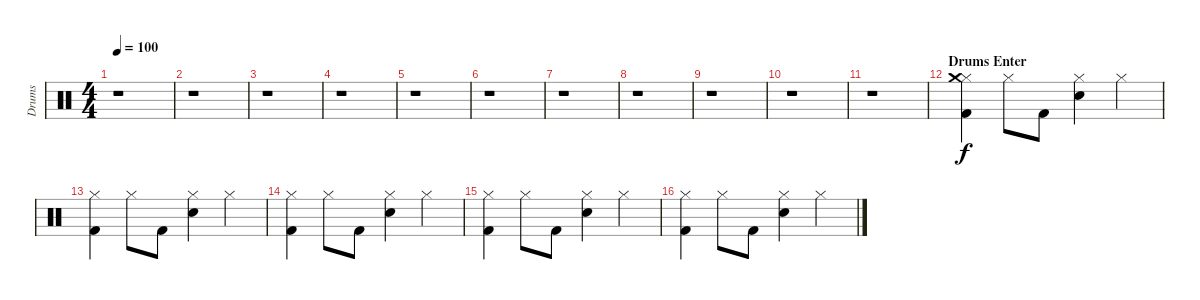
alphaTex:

\track ("Drums" "Drums") {instrument percussion}
\staff {score}
\articulation defaults
\ts (4 4)
\tempo 100
\clef neutral
\ks c
r.1{dy f} |
r.1 |
r.1 |
r.1 |
r.1 |
r.1 |
r.1 |
r.1 |
r.1 |
r.1 |
r.1 |
\section ("" "Drums Enter")
("Hi-Hat (closed)" "Crash medium (hit)" "Kick (hit) 2").4 "Hi-Hat (closed)".8 "Kick (hit) 2".8 ("Hi-Hat (closed)" "Electric Snare (hit)").4 "Hi-Hat (closed)".4 |
("Hi-Hat (closed)" "Kick (hit) 2").4 "Hi-Hat (closed)".8 "Kick (hit) 2".8 ("Hi-Hat (closed)" "Electric Snare (hit)").4 "Hi-Hat (closed)".4 |
("Hi-Hat (closed)" "Kick (hit) 2").4 "Hi-Hat (closed)".8 "Kick (hit) 2".8 ("Hi-Hat (closed)" "Electric Snare (hit)").4 "Hi-Hat (closed)".4 |
("Hi-Hat (closed)" "Kick (hit) 2").4 "Hi-Hat (closed)".8 "Kick (hit) 2".8 ("Hi-Hat (closed)" "Electric Snare (hit)").4 "Hi-Hat (closed)".4 |
("Hi-Hat (closed)" "Kick (hit) 2").4 "Hi-Hat (closed)".8 "Kick (hit) 2".8 ("Hi-Hat (closed)" "Electric Snare (hit)").4 "Hi-Hat (closed)".4
